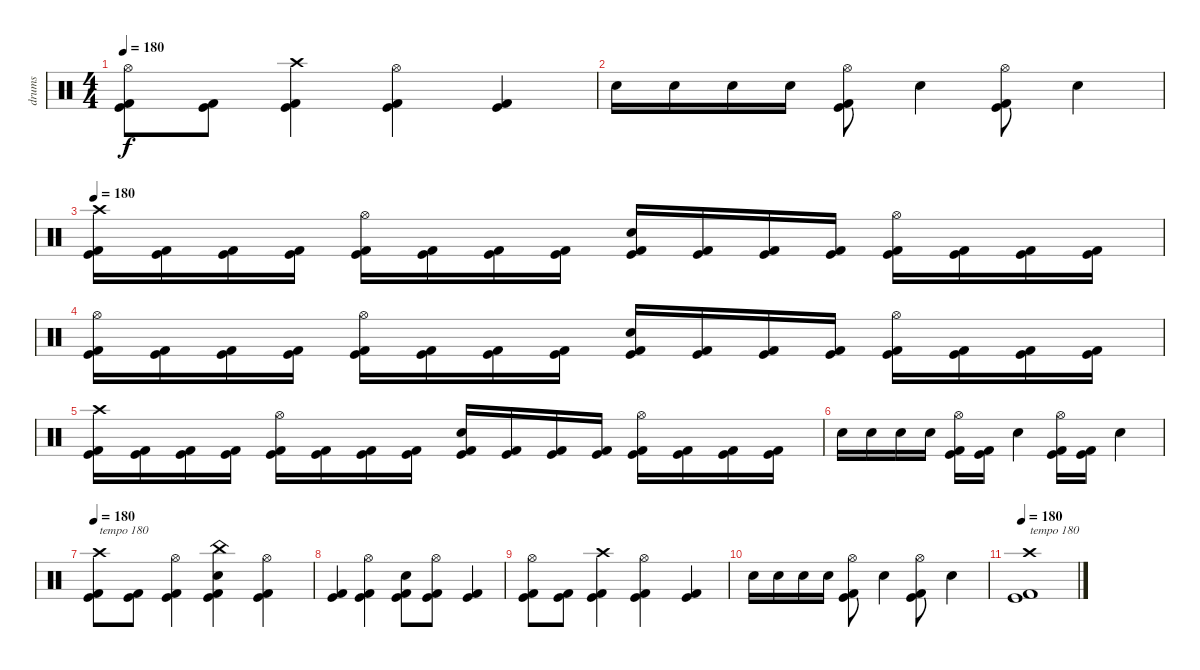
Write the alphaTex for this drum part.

\track ("drums" "drums") {instrument percussion}
\staff {score}
\articulation defaults
\ts (4 4)
\tempo 180
\clef neutral
\ks c
("Hi-Hat (open)" "Kick (hit) 2" "Kick (hit)").8{dy f} ("Kick (hit) 2" "Kick (hit)").8 ("Crash high (hit)" "Kick (hit) 2" "Kick (hit)").4 ("Hi-Hat (open)" "Kick (hit) 2" "Kick (hit)").4 ("Kick (hit) 2" "Kick (hit)").4 |
"Electric Snare (hit)".16 "Electric Snare (hit)".16 "Electric Snare (hit)".16 "Electric Snare (hit)".16 ("Hi-Hat (open)" "Kick (hit) 2" "Kick (hit)").8 "Electric Snare (hit)".4 ("Hi-Hat (open)" "Kick (hit) 2" "Kick (hit)").8 "Electric Snare (hit)".4 |
\tempo 180
("Crash high (hit)" "Kick (hit) 2" "Kick (hit)").16 ("Kick (hit) 2" "Kick (hit)").16 ("Kick (hit) 2" "Kick (hit)").16 ("Kick (hit) 2" "Kick (hit)").16 ("Hi-Hat (open)" "Kick (hit) 2" "Kick (hit)").16 ("Kick (hit) 2" "Kick (hit)").16 ("Kick (hit) 2" "Kick (hit)").16 ("Kick (hit) 2" "Kick (hit)").16 ("Electric Snare (hit)" "Kick (hit) 2" "Kick (hit)").16 ("Kick (hit) 2" "Kick (hit)").16 ("Kick (hit) 2" "Kick (hit)").16 ("Kick (hit) 2" "Kick (hit)").16 ("Hi-Hat (open)" "Kick (hit) 2" "Kick (hit)").16 ("Kick (hit) 2" "Kick (hit)").16 ("Kick (hit) 2" "Kick (hit)").16 ("Kick (hit) 2" "Kick (hit)").16 |
("Hi-Hat (open)" "Kick (hit) 2" "Kick (hit)").16 ("Kick (hit) 2" "Kick (hit)").16 ("Kick (hit) 2" "Kick (hit)").16 ("Kick (hit) 2" "Kick (hit)").16 ("Hi-Hat (open)" "Kick (hit) 2" "Kick (hit)").16 ("Kick (hit) 2" "Kick (hit)").16 ("Kick (hit) 2" "Kick (hit)").16 ("Kick (hit) 2" "Kick (hit)").16 ("Electric Snare (hit)" "Kick (hit) 2" "Kick (hit)").16 ("Kick (hit) 2" "Kick (hit)").16 ("Kick (hit) 2" "Kick (hit)").16 ("Kick (hit) 2" "Kick (hit)").16 ("Hi-Hat (open)" "Kick (hit) 2" "Kick (hit)").16 ("Kick (hit) 2" "Kick (hit)").16 ("Kick (hit) 2" "Kick (hit)").16 ("Kick (hit) 2" "Kick (hit)").16 |
("Crash high (hit)" "Kick (hit) 2" "Kick (hit)").16 ("Kick (hit) 2" "Kick (hit)").16 ("Kick (hit) 2" "Kick (hit)").16 ("Kick (hit) 2" "Kick (hit)").16 ("Hi-Hat (open)" "Kick (hit) 2" "Kick (hit)").16 ("Kick (hit) 2" "Kick (hit)").16 ("Kick (hit) 2" "Kick (hit)").16 ("Kick (hit) 2" "Kick (hit)").16 ("Electric Snare (hit)" "Kick (hit) 2" "Kick (hit)").16 ("Kick (hit) 2" "Kick (hit)").16 ("Kick (hit) 2" "Kick (hit)").16 ("Kick (hit) 2" "Kick (hit)").16 ("Hi-Hat (open)" "Kick (hit) 2" "Kick (hit)").16 ("Kick (hit) 2" "Kick (hit)").16 ("Kick (hit) 2" "Kick (hit)").16 ("Kick (hit) 2" "Kick (hit)").16 |
"Electric Snare (hit)".16 "Electric Snare (hit)".16 "Electric Snare (hit)".16 "Electric Snare (hit)".16 ("Hi-Hat (open)" "Kick (hit) 2" "Kick (hit)").16 ("Kick (hit) 2" "Kick (hit)").16 "Electric Snare (hit)".4 ("Hi-Hat (open)" "Kick (hit) 2" "Kick (hit)").16 ("Kick (hit) 2" "Kick (hit)").16 "Electric Snare (hit)".4 |
\tempo 180
("Crash high (hit)" "Kick (hit) 2" "Kick (hit)").8{txt "tempo 180"} ("Kick (hit) 2" "Kick (hit)").8 ("Hi-Hat (open)" "Kick (hit) 2" "Kick (hit)").4 ("China (hit)" "Electric Snare (hit)" "Kick (hit) 2" "Kick (hit)").4 ("Hi-Hat (open)" "Kick (hit)" "Kick (hit) 2").4 |
("Kick (hit) 2" "Kick (hit)").4 ("Hi-Hat (open)" "Kick (hit) 2" "Kick (hit)").4 ("Electric Snare (hit)" "Kick (hit) 2" "Kick (hit)").8 ("Hi-Hat (open)" "Kick (hit) 2" "Kick (hit)").8 ("Kick (hit) 2" "Kick (hit)").4 |
("Hi-Hat (open)" "Kick (hit) 2" "Kick (hit)").8 ("Kick (hit) 2" "Kick (hit)").8 ("Crash high (hit)" "Kick (hit) 2" "Kick (hit)").4 ("Hi-Hat (open)" "Kick (hit) 2" "Kick (hit)").4 ("Kick (hit) 2" "Kick (hit)").4 |
"Electric Snare (hit)".16 "Electric Snare (hit)".16 "Electric Snare (hit)".16 "Electric Snare (hit)".16 ("Hi-Hat (open)" "Kick (hit) 2" "Kick (hit)").8 "Electric Snare (hit)".4 ("Hi-Hat (open)" "Kick (hit) 2" "Kick (hit)").8 "Electric Snare (hit)".4 |
\tempo 180
("Crash high (hit)" "Kick (hit) 2" "Kick (hit)").1{txt "tempo 180"}
